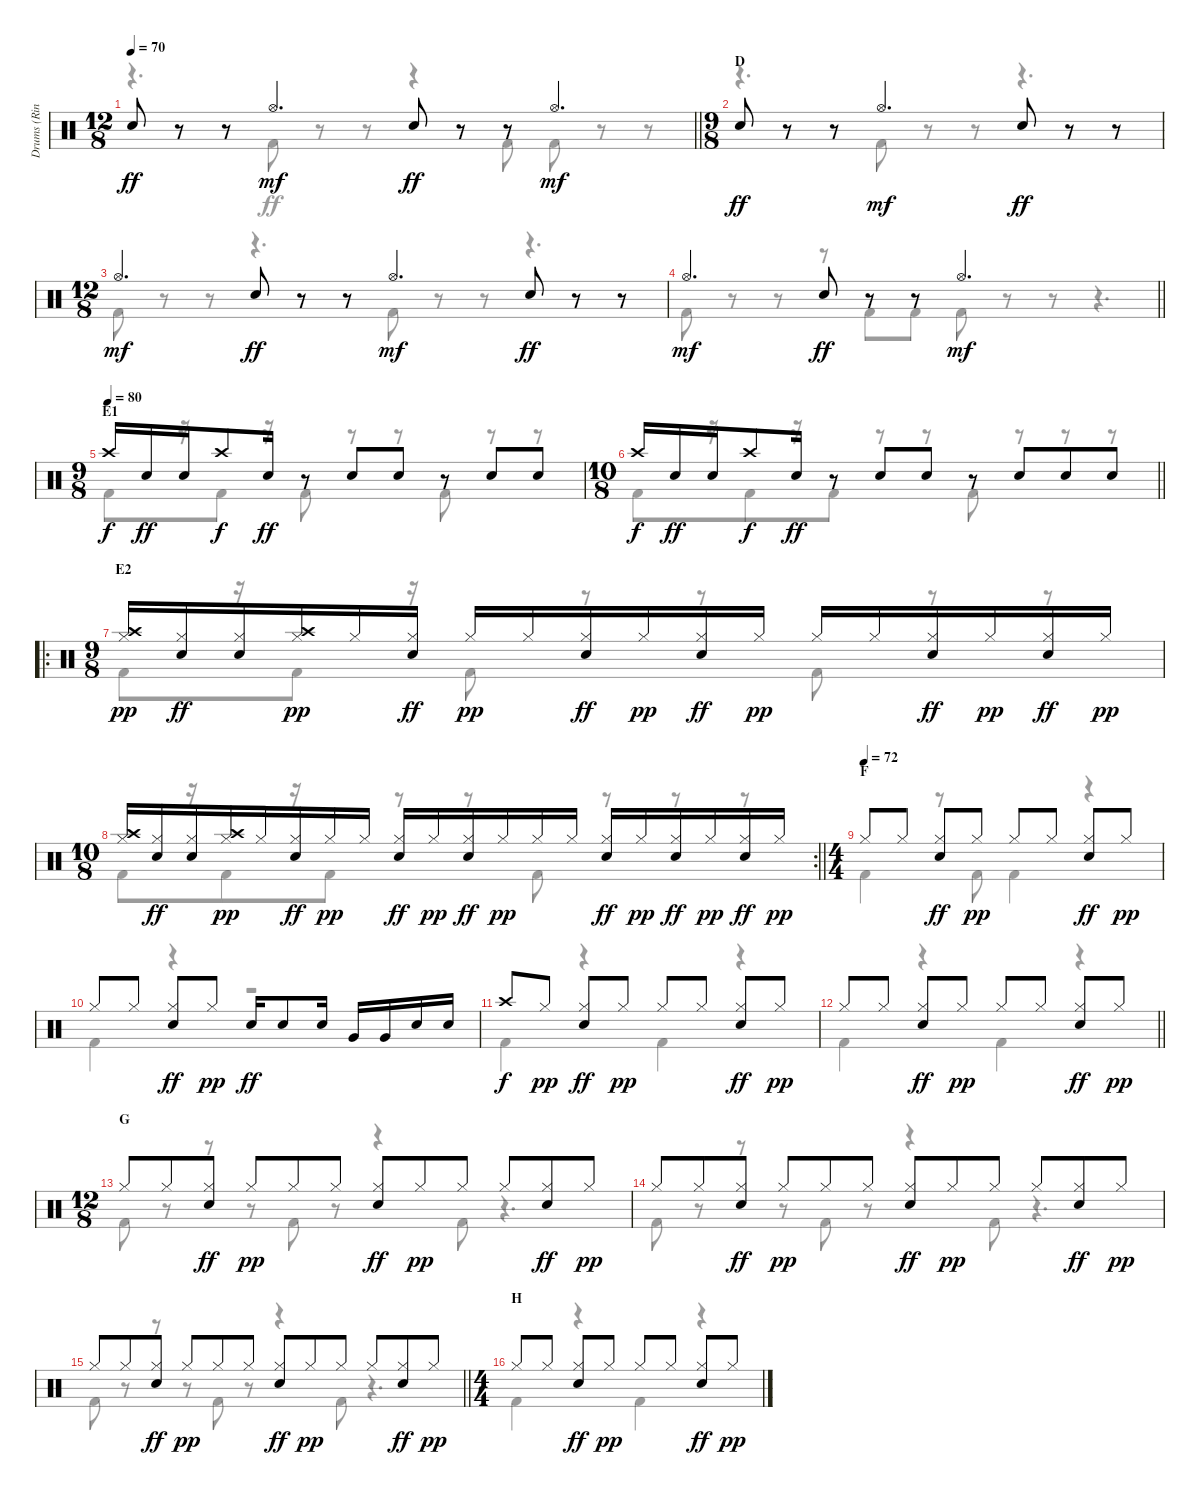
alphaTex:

\track ("Drums (Ringo Starr)" "Drums (Rin") {instrument percussion}
\staff {score}
\articulation defaults
\voice
\ts (12 8)
\tempo 70
\clef neutral
\barLineRight lightlight
\ks c "Snare (hit) 2".8{dy ff}
r.8 r.8 "Hi-Hat (open)".4{d dy mf} "Snare (hit) 2".8{dy ff} r.8 r.8 "Hi-Hat (open)".4{d dy mf} |
\ts (9 8)
\section ("" "D")
"Snare (hit) 2".8{dy ff} r.8 r.8 "Hi-Hat (open)".4{d dy mf} "Snare (hit) 2".8{dy ff} r.8 r.8 |
\ts (12 8)
"Hi-Hat (open)".4{d dy mf} "Snare (hit) 2".8{dy ff} r.8 r.8 "Hi-Hat (open)".4{d dy mf} "Snare (hit) 2".8{dy ff} r.8 r.8 |
\barLineRight lightlight "Hi-Hat (open)".4{d dy mf} "Snare (hit) 2".8{dy ff}
r.8 r.8 "Hi-Hat (open)".2{d dy mf} |
\ts (9 8)
\section ("" "E1")
\tempo (80)
"Crash high (hit)".16{dy f} "Snare (hit) 2".16{dy ff} "Snare (hit) 2".16 "Crash high (hit)".8{dy f} "Snare (hit) 2".16{dy ff} r.8 "Snare (hit) 2".8 "Snare (hit) 2".8 r.8 "Snare (hit) 2".8 "Snare (hit) 2".8 |
\ts (10 8)
\barLineRight lightlight "Crash high (hit)".16{dy f} "Snare (hit) 2".16{dy ff} "Snare (hit) 2".16 "Crash high (hit)".8{dy f} "Snare (hit) 2".16{dy ff}
r.8 "Snare (hit) 2".8 "Snare (hit) 2".8 r.8 "Snare (hit) 2".8 "Snare (hit) 2".8 "Snare (hit) 2".8 |
\ro
\ts (9 8)
\section ("" "E2")
("Hi-Hat (closed)" "Crash high (hit)").16{dy pp} ("Hi-Hat (closed)" "Snare (hit) 2").16{dy ff} ("Hi-Hat (closed)" "Snare (hit) 2").16 ("Hi-Hat (closed)" "Crash high (hit)").16{dy pp} "Hi-Hat (closed)".16 ("Hi-Hat (closed)" "Snare (hit) 2").16{dy ff} "Hi-Hat (closed)".16{dy pp} "Hi-Hat (closed)".16 ("Hi-Hat (closed)" "Snare (hit) 2").16{dy ff} "Hi-Hat (closed)".16{dy pp} ("Hi-Hat (closed)" "Snare (hit) 2").16{dy ff} "Hi-Hat (closed)".16{dy pp} "Hi-Hat (closed)".16 "Hi-Hat (closed)".16 ("Hi-Hat (closed)" "Snare (hit) 2").16{dy ff} "Hi-Hat (closed)".16{dy pp} ("Hi-Hat (closed)" "Snare (hit) 2").16{dy ff} "Hi-Hat (closed)".16{dy pp} |
\rc 2
\ts (10 8)
\barLineRight lightlight
("Hi-Hat (closed)" "Crash high (hit)").16 ("Hi-Hat (closed)" "Snare (hit) 2").16{dy ff} ("Hi-Hat (closed)" "Snare (hit) 2").16 ("Hi-Hat (closed)" "Crash high (hit)").16{dy pp} "Hi-Hat (closed)".16 ("Hi-Hat (closed)" "Snare (hit) 2").16{dy ff} "Hi-Hat (closed)".16{dy pp} "Hi-Hat (closed)".16 ("Hi-Hat (closed)" "Snare (hit) 2").16{dy ff} "Hi-Hat (closed)".16{dy pp} ("Hi-Hat (closed)" "Snare (hit) 2").16{dy ff} "Hi-Hat (closed)".16{dy pp} "Hi-Hat (closed)".16 "Hi-Hat (closed)".16 ("Hi-Hat (closed)" "Snare (hit) 2").16{dy ff} "Hi-Hat (closed)".16{dy pp} ("Hi-Hat (closed)" "Snare (hit) 2").16{dy ff} "Hi-Hat (closed)".16{dy pp} ("Hi-Hat (closed)" "Snare (hit) 2").16{dy ff} "Hi-Hat (closed)".16{dy pp} |
\ts (4 4)
\section ("" "F")
\tempo (72)
"Hi-Hat (closed)".8 "Hi-Hat (closed)".8 ("Hi-Hat (closed)" "Snare (hit) 2").8{dy ff} "Hi-Hat (closed)".8{dy pp} "Hi-Hat (closed)".8 "Hi-Hat (closed)".8 ("Hi-Hat (closed)" "Snare (hit) 2").8{dy ff} "Hi-Hat (closed)".8{dy pp} |
"Hi-Hat (closed)".8 "Hi-Hat (closed)".8 ("Hi-Hat (closed)" "Snare (hit) 2").8{dy ff} "Hi-Hat (closed)".8{dy pp} "Snare (hit) 2".16{dy ff} "Snare (hit) 2".8 "Snare (hit) 2".16 "Very Low Tom (hit)".16 "Very Low Tom (hit)".16 "Snare (hit) 2".16 "Snare (hit) 2".16 |
"Crash high (hit)".8{dy f} "Hi-Hat (closed)".8{dy pp} ("Hi-Hat (closed)" "Snare (hit) 2").8{dy ff} "Hi-Hat (closed)".8{dy pp} "Hi-Hat (closed)".8 "Hi-Hat (closed)".8 ("Hi-Hat (closed)" "Snare (hit) 2").8{dy ff} "Hi-Hat (closed)".8{dy pp} |
\barLineRight lightlight "Hi-Hat (closed)".8 "Hi-Hat (closed)".8
("Hi-Hat (closed)" "Snare (hit) 2").8{dy ff} "Hi-Hat (closed)".8{dy pp} "Hi-Hat (closed)".8 "Hi-Hat (closed)".8 ("Hi-Hat (closed)" "Snare (hit) 2").8{dy ff} "Hi-Hat (closed)".8{dy pp} |
\ts (12 8)
\section ("" "G")
"Hi-Hat (closed)".8 "Hi-Hat (closed)".8 ("Hi-Hat (closed)" "Snare (hit) 2").8{dy ff} "Hi-Hat (closed)".8{dy pp} "Hi-Hat (closed)".8 "Hi-Hat (closed)".8 ("Hi-Hat (closed)" "Snare (hit) 2").8{dy ff} "Hi-Hat (closed)".8{dy pp} "Hi-Hat (closed)".8 "Hi-Hat (closed)".8 ("Hi-Hat (closed)" "Snare (hit) 2").8{dy ff} "Hi-Hat (closed)".8{dy pp} |
"Hi-Hat (closed)".8 "Hi-Hat (closed)".8 ("Hi-Hat (closed)" "Snare (hit) 2").8{dy ff} "Hi-Hat (closed)".8{dy pp} "Hi-Hat (closed)".8 "Hi-Hat (closed)".8 ("Hi-Hat (closed)" "Snare (hit) 2").8{dy ff} "Hi-Hat (closed)".8{dy pp} "Hi-Hat (closed)".8 "Hi-Hat (closed)".8 ("Hi-Hat (closed)" "Snare (hit) 2").8{dy ff} "Hi-Hat (closed)".8{dy pp} |
\barLineRight lightlight "Hi-Hat (closed)".8 "Hi-Hat (closed)".8
("Hi-Hat (closed)" "Snare (hit) 2").8{dy ff} "Hi-Hat (closed)".8{dy pp} "Hi-Hat (closed)".8 "Hi-Hat (closed)".8 ("Hi-Hat (closed)" "Snare (hit) 2").8{dy ff} "Hi-Hat (closed)".8{dy pp} "Hi-Hat (closed)".8 "Hi-Hat (closed)".8 ("Hi-Hat (closed)" "Snare (hit) 2").8{dy ff} "Hi-Hat (closed)".8{dy pp} |
\ts (4 4)
\section ("" "H")
"Hi-Hat (closed)".8 "Hi-Hat (closed)".8 ("Hi-Hat (closed)" "Snare (hit) 2").8{dy ff} "Hi-Hat (closed)".8{dy pp} "Hi-Hat (closed)".8 "Hi-Hat (closed)".8 ("Hi-Hat (closed)" "Snare (hit) 2").8{dy ff} "Hi-Hat (closed)".8{dy pp}
\voice
\clef neutral
\ottava regular
\simile none
\barLineRight lightlight
\ks c
r.4{d dy ff} "Kick (hit) 2".8 r.8 r.8 r.4 "Kick (hit) 2".8 "Kick (hit) 2".8 r.8 r.8 |
r.4{d} "Kick (hit) 2".8 r.8 r.8 r.4{d} |
"Kick (hit) 2".8 r.8 r.8 r.4{d} "Kick (hit) 2".8 r.8 r.8 r.4{d} |
\barLineRight lightlight "Kick (hit) 2".8
r.8 r.8 r.8 "Kick (hit) 2".8 "Kick (hit) 2".8 "Kick (hit) 2".8 r.8 r.8 r.4{d} |
"Kick (hit) 2".8 r.16 "Kick (hit) 2".8 r.16 "Kick (hit) 2".8 r.8 r.8 "Kick (hit) 2".8 r.8 r.8 |
\barLineRight lightlight "Kick (hit) 2".8
r.16 "Kick (hit) 2".8 r.16 "Kick (hit) 2".8 r.8 r.8 "Kick (hit) 2".8 r.8 r.8 r.8 |
"Kick (hit) 2".8 r.16 "Kick (hit) 2".8 r.16 "Kick (hit) 2".8 r.8 r.8 "Kick (hit) 2".8 r.8 r.8 |
\barLineRight lightlight "Kick (hit) 2".8
r.16 "Kick (hit) 2".8 r.16 "Kick (hit) 2".8 r.8 r.8 "Kick (hit) 2".8 r.8 r.8 r.8 |
"Kick (hit) 2".4 r.8 "Kick (hit) 2".8 "Kick (hit) 2".4 r.4 |
"Kick (hit) 2".4 r.4 r.2 |
"Kick (hit) 2".4 r.4 "Kick (hit) 2".4 r.4 |
\barLineRight lightlight "Kick (hit) 2".4
r.4 "Kick (hit) 2".4 r.4 |
"Kick (hit) 2".8 r.8 r.8 r.8 "Kick (hit) 2".8 r.8 r.4 "Kick (hit) 2".8 r.4{d} |
"Kick (hit) 2".8 r.8 r.8 r.8 "Kick (hit) 2".8 r.8 r.4 "Kick (hit) 2".8 r.4{d} |
\barLineRight lightlight "Kick (hit) 2".8
r.8 r.8 r.8 "Kick (hit) 2".8 r.8 r.4 "Kick (hit) 2".8 r.4{d} |
"Kick (hit) 2".4 r.4 "Kick (hit) 2".4 r.4
